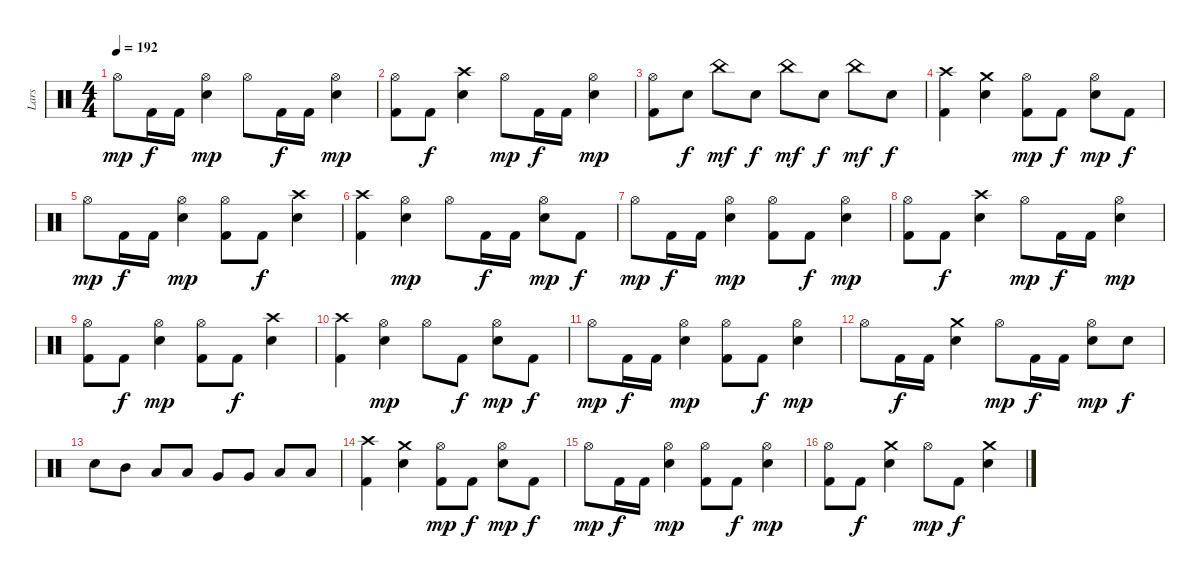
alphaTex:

\track ("Lars" "Lars") {instrument percussion}
\staff {score}
\articulation defaults
\ts (4 4)
\tempo 192
\clef neutral
\ks c "Hi-Hat (open)".8{dy mp} "Kick (hit) 2".16{dy f} "Kick (hit) 2".16
("Hi-Hat (open)" "Snare (hit) 2").4{dy mp} "Hi-Hat (open)".8 "Kick (hit) 2".16{dy f} "Kick (hit) 2".16 ("Hi-Hat (open)" "Snare (hit) 2").4{dy mp} |
("Hi-Hat (open)" "Kick (hit) 2").8 "Kick (hit) 2".8{dy f} ("Crash high (hit)" "Snare (hit) 2").4 "Hi-Hat (open)".8{dy mp} "Kick (hit) 2".16{dy f} "Kick (hit) 2".16 ("Hi-Hat (open)" "Snare (hit) 2").4{dy mp} |
("Hi-Hat (open)" "Kick (hit) 2").8 "Snare (hit) 2".8{dy f} "China (hit)".8{dy mf} "Snare (hit) 2".8{dy f} "China (hit)".8{dy mf} "Snare (hit) 2".8{dy f} "China (hit)".8{dy mf} "Snare (hit) 2".8{dy f} |
("Crash high (hit)" "Kick (hit) 2").4 ("Crash medium (hit)" "Snare (hit) 2").4 ("Hi-Hat (open)" "Kick (hit) 2").8{dy mp} "Kick (hit) 2".8{dy f} ("Hi-Hat (open)" "Snare (hit) 2").8{dy mp} "Kick (hit) 2".8{dy f} |
"Hi-Hat (open)".8{dy mp} "Kick (hit) 2".16{dy f} "Kick (hit) 2".16 ("Hi-Hat (open)" "Snare (hit) 2").4{dy mp} ("Hi-Hat (open)" "Kick (hit) 2").8 "Kick (hit) 2".8{dy f} ("Crash high (hit)" "Snare (hit) 2").4 |
("Crash high (hit)" "Kick (hit) 2").4 ("Hi-Hat (open)" "Snare (hit) 2").4{dy mp} "Hi-Hat (open)".8 "Kick (hit) 2".16{dy f} "Kick (hit) 2".16 ("Hi-Hat (open)" "Snare (hit) 2").8{dy mp} "Kick (hit) 2".8{dy f} |
"Hi-Hat (open)".8{dy mp} "Kick (hit) 2".16{dy f} "Kick (hit) 2".16 ("Hi-Hat (open)" "Snare (hit) 2").4{dy mp} ("Hi-Hat (open)" "Kick (hit) 2").8 "Kick (hit) 2".8{dy f} ("Hi-Hat (open)" "Snare (hit) 2").4{dy mp} |
("Hi-Hat (open)" "Kick (hit) 2").8 "Kick (hit) 2".8{dy f} ("Crash high (hit)" "Snare (hit) 2").4 "Hi-Hat (open)".8{dy mp} "Kick (hit) 2".16{dy f} "Kick (hit) 2".16 ("Hi-Hat (open)" "Snare (hit) 2").4{dy mp} |
("Hi-Hat (open)" "Kick (hit) 2").8 "Kick (hit) 2".8{dy f} ("Hi-Hat (open)" "Snare (hit) 2").4{dy mp} ("Hi-Hat (open)" "Kick (hit) 2").8 "Kick (hit) 2".8{dy f} ("Crash high (hit)" "Snare (hit) 2").4 |
("Crash high (hit)" "Kick (hit) 2").4 ("Hi-Hat (open)" "Snare (hit) 2").4{dy mp} "Hi-Hat (open)".8 "Kick (hit) 2".8{dy f} ("Hi-Hat (open)" "Snare (hit) 2").8{dy mp} "Kick (hit) 2".8{dy f} |
"Hi-Hat (open)".8{dy mp} "Kick (hit) 2".16{dy f} "Kick (hit) 2".16 ("Hi-Hat (open)" "Snare (hit) 2").4{dy mp} ("Hi-Hat (open)" "Kick (hit) 2").8 "Kick (hit) 2".8{dy f} ("Hi-Hat (open)" "Snare (hit) 2").4{dy mp} |
"Hi-Hat (open)".8 "Kick (hit) 2".16{dy f} "Kick (hit) 2".16 ("Crash medium (hit)" "Snare (hit) 2").4 "Hi-Hat (open)".8{dy mp} "Kick (hit) 2".16{dy f} "Kick (hit) 2".16 ("Hi-Hat (open)" "Snare (hit) 2").8{dy mp} "Snare (hit) 2".8{dy f} |
"Snare (hit) 2".8 "Mid Tom (hit)".8 "Low Tom (hit)".8 "Low Tom (hit)".8 "Very Low Tom (hit)".8 "Very Low Tom (hit)".8 "Low Floor Tom (hit)".8 "Low Floor Tom (hit)".8 |
("Crash high (hit)" "Kick (hit) 2").4 ("Crash medium (hit)" "Snare (hit) 2").4 ("Hi-Hat (open)" "Kick (hit) 2").8{dy mp} "Kick (hit) 2".8{dy f} ("Hi-Hat (open)" "Snare (hit) 2").8{dy mp} "Kick (hit) 2".8{dy f} |
"Hi-Hat (open)".8{dy mp} "Kick (hit) 2".16{dy f} "Kick (hit) 2".16 ("Hi-Hat (open)" "Snare (hit) 2").4{dy mp} ("Hi-Hat (open)" "Kick (hit) 2").8 "Kick (hit) 2".8{dy f} ("Hi-Hat (open)" "Snare (hit) 2").4{dy mp} |
("Hi-Hat (open)" "Kick (hit) 2").8 "Kick (hit) 2".8{dy f} ("Crash medium (hit)" "Snare (hit) 2").4 "Hi-Hat (open)".8{dy mp} "Kick (hit) 2".8{dy f} ("Crash medium (hit)" "Snare (hit) 2").4
